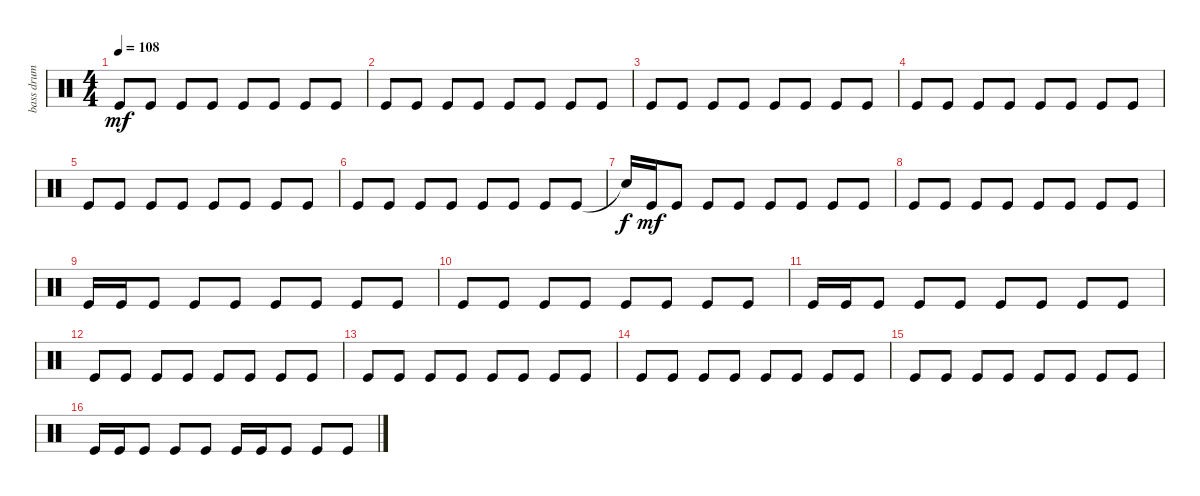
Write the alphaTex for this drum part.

\track ("bass drum           " "bass drum ") {instrument percussion}
\staff {score}
\articulation defaults
\ts (4 4)
\tempo 108
\clef neutral
\ks c "Kick (hit)".8{dy mf} "Kick (hit)".8 "Kick (hit)".8 "Kick (hit)".8 "Kick (hit)".8 "Kick (hit)".8 "Kick (hit)".8 "Kick (hit)".8
|
"Kick (hit)".8 "Kick (hit)".8 "Kick (hit)".8 "Kick (hit)".8 "Kick (hit)".8 "Kick (hit)".8 "Kick (hit)".8 "Kick (hit)".8 |
"Kick (hit)".8 "Kick (hit)".8 "Kick (hit)".8 "Kick (hit)".8 "Kick (hit)".8 "Kick (hit)".8 "Kick (hit)".8 "Kick (hit)".8 |
"Kick (hit)".8 "Kick (hit)".8 "Kick (hit)".8 "Kick (hit)".8 "Kick (hit)".8 "Kick (hit)".8 "Kick (hit)".8 "Kick (hit)".8 |
"Kick (hit)".8 "Kick (hit)".8 "Kick (hit)".8 "Kick (hit)".8 "Kick (hit)".8 "Kick (hit)".8 "Kick (hit)".8 "Kick (hit)".8 |
"Kick (hit)".8 "Kick (hit)".8 "Kick (hit)".8 "Kick (hit)".8 "Kick (hit)".8 "Kick (hit)".8 "Kick (hit)".8 "Kick (hit)".8 |
"Snare (hit)"{t}.16{dy f} "Kick (hit)".16{dy mf} "Kick (hit)".8 "Kick (hit)".8 "Kick (hit)".8 "Kick (hit)".8 "Kick (hit)".8 "Kick (hit)".8 "Kick (hit)".8 |
"Kick (hit)".8 "Kick (hit)".8 "Kick (hit)".8 "Kick (hit)".8 "Kick (hit)".8 "Kick (hit)".8 "Kick (hit)".8 "Kick (hit)".8 |
"Kick (hit)".16 "Kick (hit)".16 "Kick (hit)".8 "Kick (hit)".8 "Kick (hit)".8 "Kick (hit)".8 "Kick (hit)".8 "Kick (hit)".8 "Kick (hit)".8 |
"Kick (hit)".8 "Kick (hit)".8 "Kick (hit)".8 "Kick (hit)".8 "Kick (hit)".8 "Kick (hit)".8 "Kick (hit)".8 "Kick (hit)".8 |
"Kick (hit)".16 "Kick (hit)".16 "Kick (hit)".8 "Kick (hit)".8 "Kick (hit)".8 "Kick (hit)".8 "Kick (hit)".8 "Kick (hit)".8 "Kick (hit)".8 |
"Kick (hit)".8 "Kick (hit)".8 "Kick (hit)".8 "Kick (hit)".8 "Kick (hit)".8 "Kick (hit)".8 "Kick (hit)".8 "Kick (hit)".8 |
"Kick (hit)".8 "Kick (hit)".8 "Kick (hit)".8 "Kick (hit)".8 "Kick (hit)".8 "Kick (hit)".8 "Kick (hit)".8 "Kick (hit)".8 |
"Kick (hit)".8 "Kick (hit)".8 "Kick (hit)".8 "Kick (hit)".8 "Kick (hit)".8 "Kick (hit)".8 "Kick (hit)".8 "Kick (hit)".8 |
"Kick (hit)".8 "Kick (hit)".8 "Kick (hit)".8 "Kick (hit)".8 "Kick (hit)".8 "Kick (hit)".8 "Kick (hit)".8 "Kick (hit)".8 |
"Kick (hit)".16 "Kick (hit)".16 "Kick (hit)".8 "Kick (hit)".8 "Kick (hit)".8 "Kick (hit)".16 "Kick (hit)".16 "Kick (hit)".8 "Kick (hit)".8 "Kick (hit)".8
